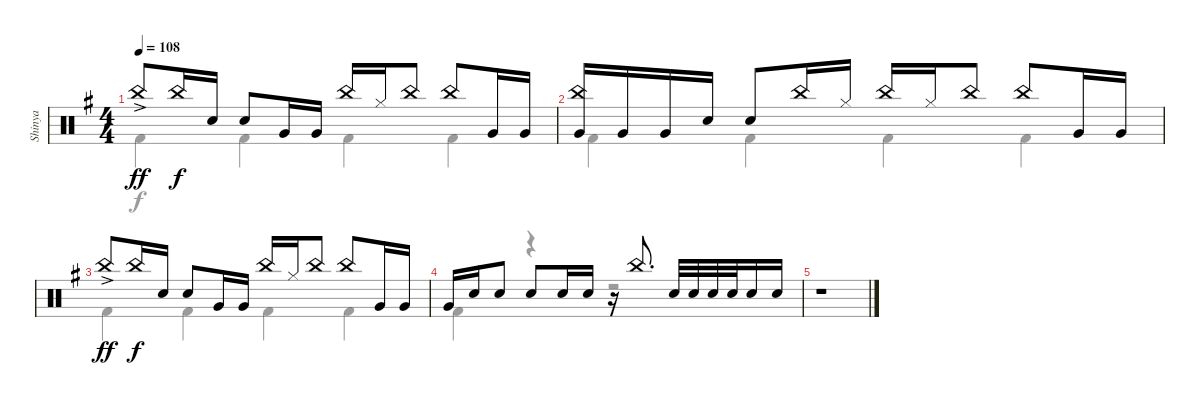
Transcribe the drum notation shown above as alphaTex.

\track ("Shinya" "Shinya") {instrument percussion}
\staff {score}
\articulation defaults
\voice
\ts (4 4)
\tempo 108
\clef neutral
\ks g "China (hit)"{ac}.8{dy ff} "China (hit)".16{dy f} "Snare (hit) 2".16 "Snare (hit) 2".8 "Very Low Tom (hit)".16 "Very Low Tom (hit)".16 "China (hit)".16 "Hi-Hat (closed)".16 "China (hit)".8 "China (hit)".8 "Very Low Tom (hit)".16 "Very Low Tom (hit)".16
|
("China (hit)" "Very Low Tom (hit)").16 "Very Low Tom (hit)".16 "Very Low Tom (hit)".16 "Snare (hit) 2".16 "Snare (hit) 2".8 "China (hit)".16 "Hi-Hat (closed)".16 "China (hit)".16 "Hi-Hat (closed)".16 "China (hit)".8 "China (hit)".8 "Very Low Tom (hit)".16 "Very Low Tom (hit)".16 |
"China (hit)"{ac}.8{dy ff} "China (hit)".16{dy f} "Snare (hit) 2".16 "Snare (hit) 2".8 "Very Low Tom (hit)".16 "Very Low Tom (hit)".16 "China (hit)".16 "Hi-Hat (closed)".16 "China (hit)".8 "China (hit)".8 "Very Low Tom (hit)".16 "Very Low Tom (hit)".16 |
"Very Low Tom (hit)".16 "Snare (hit) 2".16 "Snare (hit) 2".8 "Snare (hit) 2".8 "Snare (hit) 2".16 "Snare (hit) 2".16 r.16 "China (hit)".8{d} "Snare (hit) 2".32 "Snare (hit) 2".32 "Snare (hit) 2".32 "Snare (hit) 2".32 "Snare (hit) 2".16 "Snare (hit) 2".16 |
r.1
\voice
\clef neutral
\ottava regular
\simile none
\ks g "Kick (hit) 2".4{dy f} "Kick (hit) 2".4 "Kick (hit) 2".4 "Kick (hit) 2".4
|
"Kick (hit) 2".4 "Kick (hit) 2".4 "Kick (hit) 2".4 "Kick (hit) 2".4 |
"Kick (hit) 2".4 "Kick (hit) 2".4 "Kick (hit) 2".4 "Kick (hit) 2".4 |
"Kick (hit) 2".4 r.4 r.2 |
